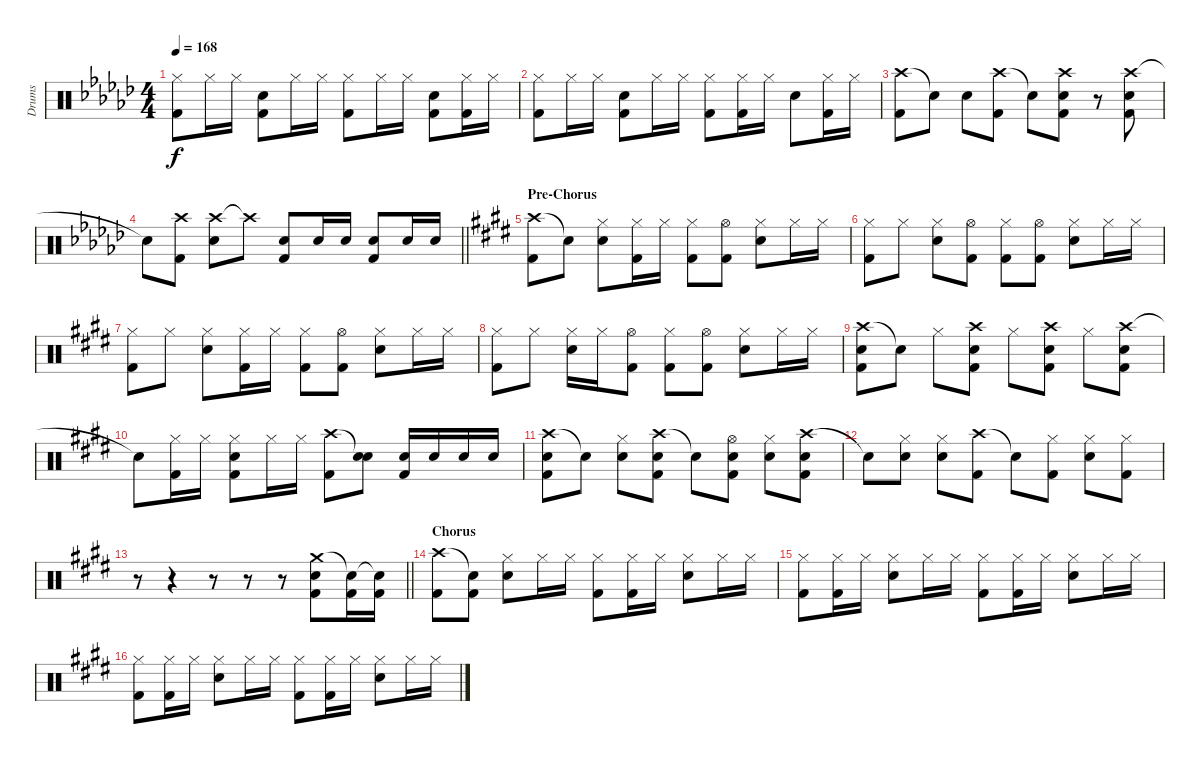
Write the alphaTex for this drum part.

\track ("Drums" "Drums") {instrument percussion}
\staff {score}
\articulation defaults
\ts (4 4)
\tempo 168
\clef neutral
\ks gb
("Hi-Hat (closed)" "Kick (hit) 2").8{dy f} "Hi-Hat (closed)".16 "Hi-Hat (closed)".16 ("Snare (hit) 2" "Kick (hit) 2").8 "Hi-Hat (closed)".16 "Hi-Hat (closed)".16 ("Hi-Hat (closed)" "Kick (hit) 2").8 "Hi-Hat (closed)".16 "Hi-Hat (closed)".16 ("Snare (hit) 2" "Kick (hit) 2").8 ("Hi-Hat (closed)" "Kick (hit) 2").16 "Hi-Hat (closed)".16 |
("Hi-Hat (closed)" "Kick (hit) 2").8 "Hi-Hat (closed)".16 "Hi-Hat (closed)".16 ("Snare (hit) 2" "Kick (hit) 2").8 "Hi-Hat (closed)".16 "Hi-Hat (closed)".16 ("Hi-Hat (closed)" "Kick (hit) 2").8 ("Hi-Hat (closed)" "Kick (hit) 2").16 "Hi-Hat (closed)".16 "Snare (hit) 2".8 ("Hi-Hat (closed)" "Kick (hit) 2").16 "Hi-Hat (closed)".16 |
("Crash high (hit)" "Kick (hit) 2").8 "Snare (hit)"{t}.8 "Snare (hit) 2".8 ("Crash high (hit)" "Kick (hit) 2").8 "Snare (hit)"{t}.8 ("Crash high (hit)" "Snare (hit) 2" "Kick (hit) 2").8 r.8 ("Crash high (hit)" "Snare (hit) 2" "Kick (hit) 2").8 |
\barLineRight lightlight "Snare (hit)"{t}.8
("Crash high (hit)" "Kick (hit) 2").8 ("Crash high (hit)" "Snare (hit) 2").8 "Crash high (hit)"{t}.8 ("Snare (hit) 2" "Kick (hit) 2").8 "Snare (hit) 2".16 "Snare (hit) 2".16 ("Snare (hit) 2" "Kick (hit) 2").8 "Snare (hit) 2".16 "Snare (hit) 2".16 |
\section ("" "Pre-Chorus")
\ks e
("Crash high (hit)" "Kick (hit) 2").8 "Snare (hit)"{t}.8 ("Hi-Hat (closed)" "Snare (hit) 2").8 ("Hi-Hat (closed)" "Kick (hit) 2").16 "Hi-Hat (closed)".16 ("Hi-Hat (closed)" "Kick (hit) 2").8 ("Hi-Hat (open)" "Kick (hit) 2").8 ("Hi-Hat (closed)" "Snare (hit) 2").8 "Hi-Hat (closed)".16 "Hi-Hat (closed)".16 |
("Hi-Hat (closed)" "Kick (hit) 2").8 "Hi-Hat (closed)".8 ("Hi-Hat (closed)" "Snare (hit) 2").8 ("Hi-Hat (open)" "Kick (hit) 2").8 ("Hi-Hat (closed)" "Kick (hit) 2").8 ("Hi-Hat (open)" "Kick (hit) 2").8 ("Hi-Hat (closed)" "Snare (hit) 2").8 "Hi-Hat (closed)".16 "Hi-Hat (closed)".16 |
("Hi-Hat (closed)" "Kick (hit) 2").8 "Hi-Hat (closed)".8 ("Hi-Hat (closed)" "Snare (hit) 2").8 ("Hi-Hat (closed)" "Kick (hit) 2").16 "Hi-Hat (closed)".16 ("Hi-Hat (closed)" "Kick (hit) 2").8 ("Hi-Hat (open)" "Kick (hit) 2").8 ("Hi-Hat (closed)" "Snare (hit) 2").8 "Hi-Hat (closed)".16 "Hi-Hat (closed)".16 |
("Hi-Hat (closed)" "Kick (hit) 2").8 "Hi-Hat (closed)".8 ("Hi-Hat (closed)" "Snare (hit) 2").16 "Hi-Hat (closed)".16 ("Hi-Hat (open)" "Kick (hit) 2").8 ("Hi-Hat (closed)" "Kick (hit) 2").8 ("Hi-Hat (open)" "Kick (hit) 2").8 ("Hi-Hat (closed)" "Snare (hit) 2").8 "Hi-Hat (closed)".16 "Hi-Hat (closed)".16 |
("Crash high (hit)" "Snare (hit) 2" "Kick (hit) 2").8 "Snare (hit)"{t}.8 "Hi-Hat (closed)".8 ("Crash high (hit)" "Snare (hit) 2" "Kick (hit) 2").8 "Hi-Hat (closed)".8 ("Crash high (hit)" "Snare (hit) 2" "Kick (hit) 2").8 "Hi-Hat (closed)".8 ("Crash high (hit)" "Snare (hit) 2" "Kick (hit) 2").8 |
"Snare (hit)"{t}.8 ("Hi-Hat (closed)" "Kick (hit) 2").16 "Hi-Hat (closed)".16 ("Hi-Hat (closed)" "Snare (hit) 2" "Kick (hit) 2").8 "Hi-Hat (closed)".16 "Hi-Hat (closed)".16 ("Crash high (hit)" "Kick (hit) 2").8 ("Snare (hit)"{t} "Snare (hit) 2").8 ("Snare (hit) 2" "Kick (hit) 2").16 "Snare (hit) 2".16 "Snare (hit) 2".16 "Snare (hit) 2".16 |
("Crash high (hit)" "Snare (hit) 2" "Kick (hit) 2").8 "Snare (hit)"{t}.8 ("Hi-Hat (closed)" "Snare (hit) 2").8 ("Crash high (hit)" "Snare (hit) 2" "Kick (hit) 2").8 "Snare (hit)"{t}.8 ("Hi-Hat (open)" "Snare (hit) 2" "Kick (hit) 2").8 ("Hi-Hat (closed)" "Snare (hit) 2").8 ("Crash high (hit)" "Snare (hit) 2" "Kick (hit) 2").8 |
"Snare (hit)"{t}.8 ("Hi-Hat (closed)" "Snare (hit) 2").8 ("Hi-Hat (closed)" "Snare (hit) 2").8 ("Crash high (hit)" "Kick (hit) 2").8 "Snare (hit)"{t}.8 ("Hi-Hat (closed)" "Kick (hit) 2").8 ("Hi-Hat (closed)" "Snare (hit) 2").8 ("Hi-Hat (closed)" "Kick (hit) 2").8 |
\barLineRight lightlight
r.8 r.4 r.8 r.8 r.8 ("Crash medium (hit)" "Snare (hit) 2" "Kick (hit) 2").8 ("Snare (hit)"{t} "Kick (hit) 2").16 ("Snare (hit)"{t} "Kick (hit) 2").16 |
\section ("" "Chorus")
("Crash high (hit)" "Kick (hit) 2").8 ("Snare (hit)"{t} "Kick (hit) 2").8 ("Hi-Hat (closed)" "Snare (hit) 2").8 "Hi-Hat (closed)".16 "Hi-Hat (closed)".16 ("Hi-Hat (closed)" "Kick (hit) 2").8 ("Hi-Hat (closed)" "Kick (hit) 2").16 "Hi-Hat (closed)".16 ("Hi-Hat (closed)" "Snare (hit) 2").8 "Hi-Hat (closed)".16 "Hi-Hat (closed)".16 |
("Hi-Hat (closed)" "Kick (hit) 2").8 ("Hi-Hat (closed)" "Kick (hit) 2").16 "Hi-Hat (closed)".16 ("Hi-Hat (closed)" "Snare (hit) 2").8 "Hi-Hat (closed)".16 "Hi-Hat (closed)".16 ("Hi-Hat (closed)" "Kick (hit) 2").8 ("Hi-Hat (closed)" "Kick (hit) 2").16 "Hi-Hat (closed)".16 ("Hi-Hat (closed)" "Snare (hit) 2").8 "Hi-Hat (closed)".16 "Hi-Hat (closed)".16 |
("Hi-Hat (closed)" "Kick (hit) 2").8 ("Hi-Hat (closed)" "Kick (hit) 2").16 "Hi-Hat (closed)".16 ("Hi-Hat (closed)" "Snare (hit) 2").8 "Hi-Hat (closed)".16 "Hi-Hat (closed)".16 ("Hi-Hat (closed)" "Kick (hit) 2").8 ("Hi-Hat (closed)" "Kick (hit) 2").16 "Hi-Hat (closed)".16 ("Hi-Hat (closed)" "Snare (hit) 2").8 "Hi-Hat (closed)".16 "Hi-Hat (closed)".16
